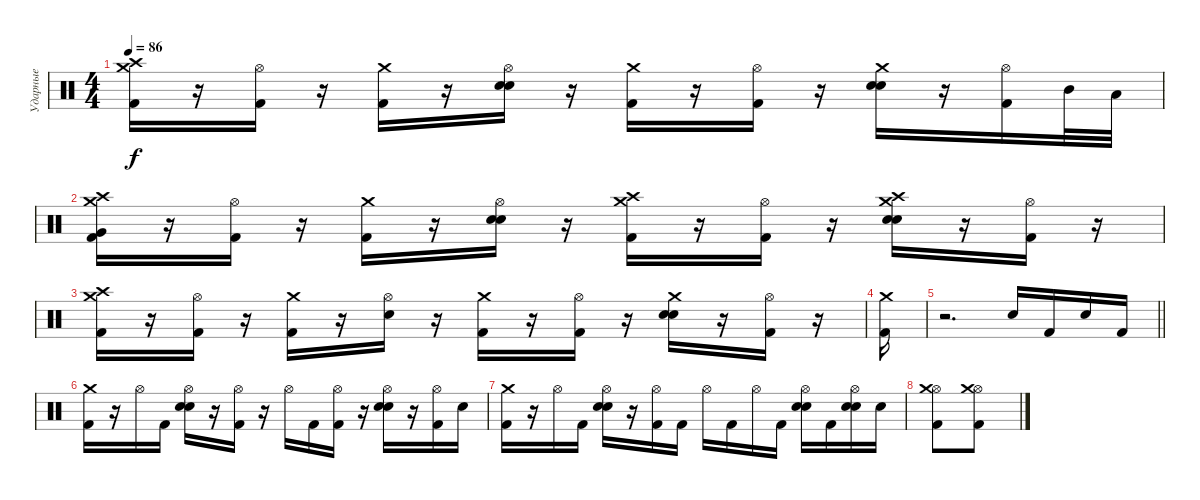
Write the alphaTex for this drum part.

\track ("Ударные" "Ударные") {instrument percussion}
\staff {score}
\articulation defaults
\ts (4 4)
\tempo 86
\clef neutral
\ks c
("Crash medium (hit)" "Crash high (hit)" "Kick (hit) 2").16{dy f} r.16 ("Hi-Hat (open)" "Kick (hit) 2").16 r.16 ("Crash medium (hit)" "Kick (hit) 2").16 r.16 ("Hi-Hat (open)" "Snare (hit) 2" "Electric Snare (hit)").16 r.16 ("Crash medium (hit)" "Kick (hit) 2").16 r.16 ("Hi-Hat (open)" "Kick (hit) 2").16 r.16 ("Crash medium (hit)" "Snare (hit) 2" "Electric Snare (hit)").16 r.16 ("Hi-Hat (open)" "Kick (hit) 2").16 "Mid Tom (hit)".32 "Low Tom (hit)".32 |
("Crash medium (hit)" "Crash high (hit)" "Very Low Tom (hit)" "Kick (hit) 2").16 r.16 ("Hi-Hat (open)" "Kick (hit) 2").16 r.16 ("Crash medium (hit)" "Kick (hit) 2").16 r.16 ("Hi-Hat (open)" "Snare (hit) 2" "Electric Snare (hit)").16 r.16 ("Crash medium (hit)" "Crash high (hit)" "Kick (hit) 2").16 r.16 ("Hi-Hat (open)" "Kick (hit) 2").16 r.16 ("Crash medium (hit)" "Crash high (hit)" "Snare (hit) 2" "Electric Snare (hit)").16 r.16 ("Hi-Hat (open)" "Kick (hit) 2").16 r.16 |
("Crash medium (hit)" "Crash high (hit)" "Kick (hit) 2").16 r.16 ("Hi-Hat (open)" "Kick (hit) 2").16 r.16 ("Crash medium (hit)" "Kick (hit) 2").16 r.16 ("Hi-Hat (open)" "Electric Snare (hit)").16 r.16 ("Crash medium (hit)" "Kick (hit) 2").16 r.16 ("Hi-Hat (open)" "Kick (hit) 2").16 r.16 ("Crash medium (hit)" "Snare (hit) 2" "Electric Snare (hit)").16 r.16 ("Hi-Hat (open)" "Kick (hit) 2").16 r.16 |
("Crash medium (hit)" "Kick (hit) 2").16 |
\barLineRight lightlight
r.2{d} "Electric Snare (hit)".16 "Kick (hit) 2".16 "Electric Snare (hit)".16 "Kick (hit) 2".16 |
("Crash medium (hit)" "Kick (hit) 2").16 r.16 "Hi-Hat (open)".16 "Kick (hit) 2".16 ("Hi-Hat (open)" "Snare (hit) 2" "Electric Snare (hit)").16 r.16 ("Hi-Hat (open)" "Kick (hit) 2").16 r.16 "Hi-Hat (open)".16 "Kick (hit) 2".16 ("Hi-Hat (open)" "Kick (hit) 2").16 r.16 ("Hi-Hat (open)" "Snare (hit) 2" "Electric Snare (hit)").16 r.16 ("Hi-Hat (open)" "Kick (hit) 2").16 "Electric Snare (hit)".16 |
("Crash medium (hit)" "Kick (hit) 2").16 r.16 "Hi-Hat (open)".16 "Kick (hit) 2".16 ("Hi-Hat (open)" "Snare (hit) 2" "Electric Snare (hit)").16 r.16 ("Hi-Hat (open)" "Kick (hit) 2").16 "Kick (hit) 2".16 "Hi-Hat (open)".16 "Kick (hit) 2".16 "Hi-Hat (open)".16 "Kick (hit) 2".16 ("Hi-Hat (open)" "Snare (hit) 2" "Electric Snare (hit)").16 "Kick (hit) 2".16 ("Hi-Hat (open)" "Snare (hit) 2" "Electric Snare (hit)").16 "Electric Snare (hit)".16 |
("Hi-Hat (open)" "Crash medium (hit)" "Kick (hit) 2").8 ("Hi-Hat (open)" "Crash medium (hit)" "Kick (hit) 2").8
